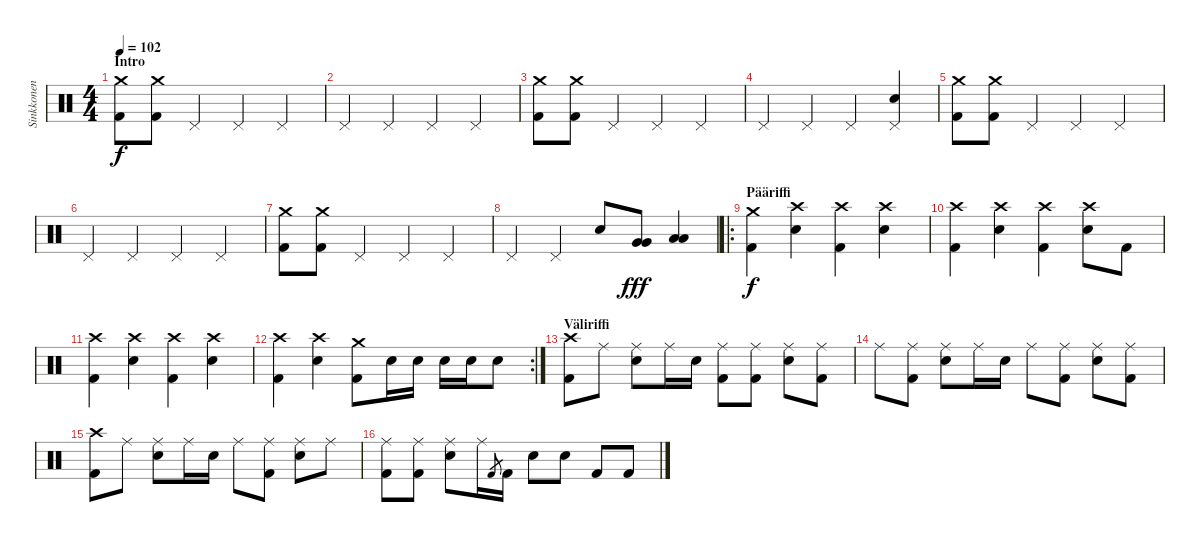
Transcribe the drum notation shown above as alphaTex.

\track ("Sinkkonen" "Sinkkonen") {instrument percussion}
\staff {score}
\articulation defaults
\ts (4 4)
\section ("" "Intro")
\tempo 102
\clef neutral
\ks c
("Kick (hit) 2" "Crash medium (hit)").8{dy f} ("Kick (hit) 2" "Crash medium (hit)").8 "Pedal Hi-Hat (hit)".4 "Pedal Hi-Hat (hit)".4 "Pedal Hi-Hat (hit)".4 |
"Pedal Hi-Hat (hit)".4 "Pedal Hi-Hat (hit)".4 "Pedal Hi-Hat (hit)".4 "Pedal Hi-Hat (hit)".4 |
("Kick (hit) 2" "Crash medium (hit)").8 ("Kick (hit) 2" "Crash medium (hit)").8 "Pedal Hi-Hat (hit)".4 "Pedal Hi-Hat (hit)".4 "Pedal Hi-Hat (hit)".4 |
"Pedal Hi-Hat (hit)".4 "Pedal Hi-Hat (hit)".4 "Pedal Hi-Hat (hit)".4 ("Pedal Hi-Hat (hit)" "Snare (hit) 2").4 |
("Kick (hit) 2" "Crash medium (hit)").8 ("Kick (hit) 2" "Crash medium (hit)").8 "Pedal Hi-Hat (hit)".4 "Pedal Hi-Hat (hit)".4 "Pedal Hi-Hat (hit)".4 |
"Pedal Hi-Hat (hit)".4 "Pedal Hi-Hat (hit)".4 "Pedal Hi-Hat (hit)".4 "Pedal Hi-Hat (hit)".4 |
("Kick (hit) 2" "Crash medium (hit)").8 ("Kick (hit) 2" "Crash medium (hit)").8 "Pedal Hi-Hat (hit)".4 "Pedal Hi-Hat (hit)".4 "Pedal Hi-Hat (hit)".4 |
"Pedal Hi-Hat (hit)".4 "Pedal Hi-Hat (hit)".4 "Snare (hit) 2".8 ("Very Low Tom (hit)" "Very Low Tom (hit)").8{dy fff} ("Low Floor Tom (hit)" "Low Floor Tom (hit)").4 |
\ro
\section ("" "Pääriffi")
("Kick (hit) 2" "Crash medium (hit)").4{dy f} ("Crash high (hit)" "Snare (hit) 2").4 ("Kick (hit) 2" "Crash high (hit)").4 ("Crash high (hit)" "Snare (hit) 2").4 |
("Kick (hit) 2" "Crash high (hit)").4 ("Crash high (hit)" "Snare (hit) 2").4 ("Kick (hit) 2" "Crash high (hit)").4 ("Crash high (hit)" "Snare (hit) 2").8 "Kick (hit) 2".8 |
("Kick (hit) 2" "Crash high (hit)").4 ("Crash high (hit)" "Snare (hit) 2").4 ("Kick (hit) 2" "Crash high (hit)").4 ("Crash high (hit)" "Snare (hit) 2").4 |
\rc 2
("Kick (hit) 2" "Crash high (hit)").4 ("Crash high (hit)" "Snare (hit) 2").4 ("Kick (hit) 2" "Crash medium (hit)").8 "Snare (hit) 2".16 "Snare (hit) 2".16 "Snare (hit) 2".16 "Snare (hit) 2".16 "Snare (hit) 2".8 |
\section ("" "Väliriffi")
("Kick (hit) 2" "Crash high (hit)").8 "Ride (middle)".8 ("Ride (middle)" "Snare (hit) 2").8 "Ride (middle)".16 "Snare (hit) 2".16 ("Kick (hit) 2" "Ride (middle)").8 ("Kick (hit) 2" "Ride (middle)").8 ("Ride (middle)" "Snare (hit) 2").8 ("Kick (hit) 2" "Ride (middle)").8 |
"Ride (middle)".8 ("Kick (hit) 2" "Ride (middle)").8 ("Ride (middle)" "Snare (hit) 2").8 "Ride (middle)".16 "Snare (hit) 2".16 "Ride (middle)".8 ("Kick (hit) 2" "Ride (middle)").8 ("Ride (middle)" "Snare (hit) 2").8 ("Kick (hit) 2" "Ride (middle)").8 |
("Kick (hit) 2" "Crash high (hit)").8 "Ride (middle)".8 ("Ride (middle)" "Snare (hit) 2").8 "Ride (middle)".16 "Snare (hit) 2".16 "Ride (middle)".8 ("Kick (hit) 2" "Ride (middle)").8 ("Ride (middle)" "Snare (hit) 2").8 "Ride (middle)".8 |
("Kick (hit) 2" "Ride (middle)").8 ("Kick (hit) 2" "Ride (middle)").8 ("Ride (middle)" "Snare (hit) 2").8 "Ride (middle)".16 "Kick (hit) 2".8{gr} "Kick (hit) 2".16 "Snare (hit) 2".8 "Snare (hit) 2".8 "Kick (hit) 2".8 "Kick (hit) 2".8
